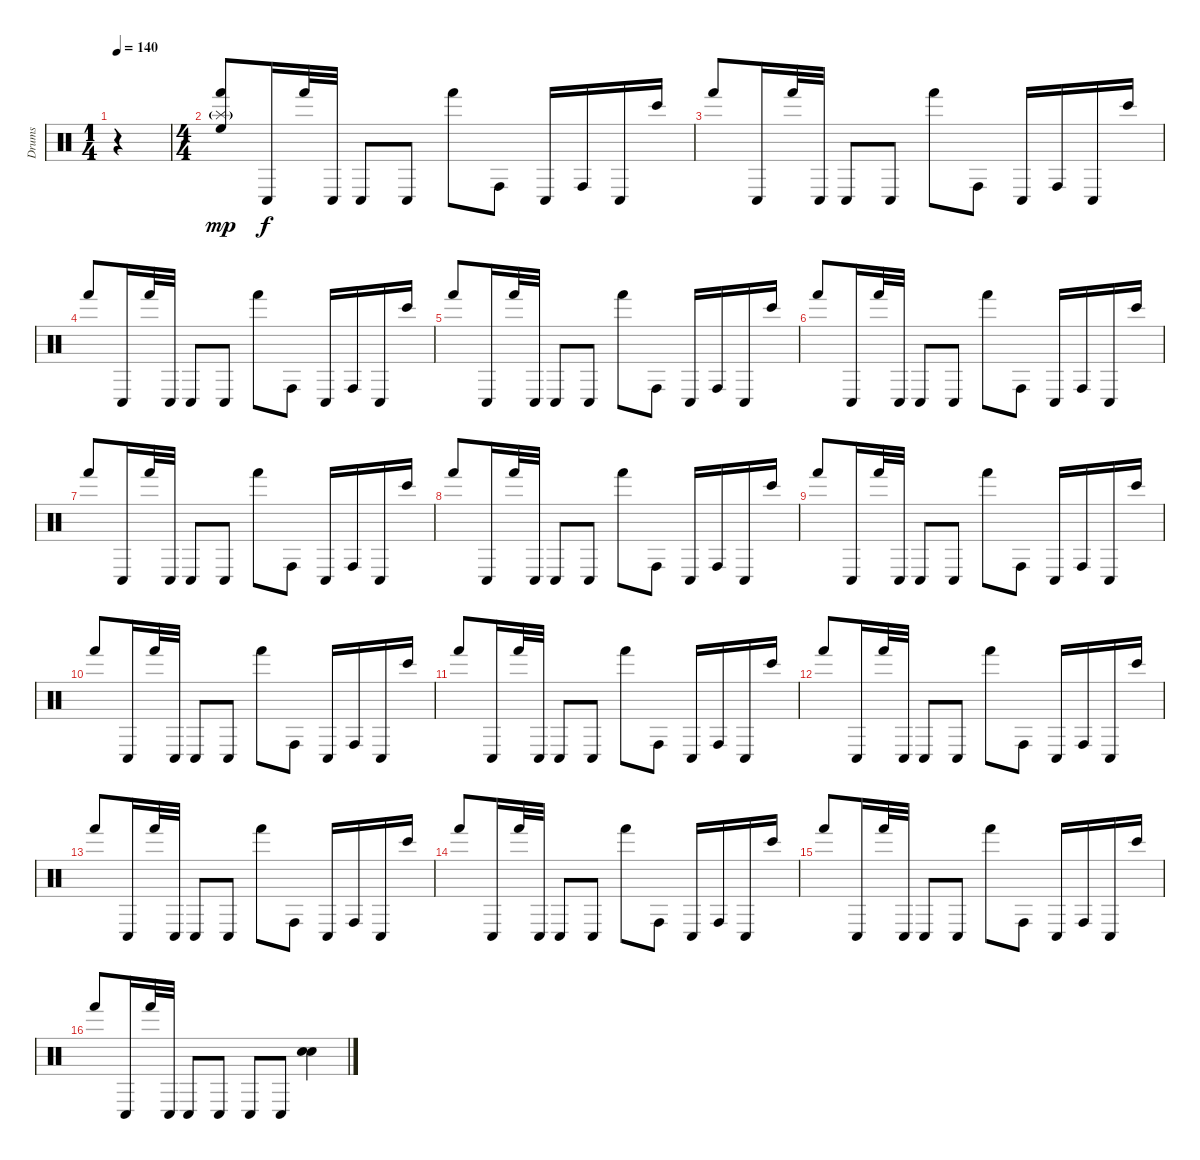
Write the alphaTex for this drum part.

\track ("Drums" "Drums") {instrument percussion}
\staff {score}
\articulation defaults
\ts (1 4)
\tempo 140
\tempo 115
\tempo 140
\clef neutral
\ks c
r.4{dy mp} |
\ts (4 4)
("Splash (hit)"{g} "High Floor Tom (hit)" "Hand (hit)").8 "Conga low (hit)".16{dy f} "Hand (hit)".32 "Conga low (hit)".32 "Conga low (hit)".8 "Conga low (hit)".8 "Hand (hit)".8 "Conga high (hit)".8 "Conga low (hit)".16 "Conga high (hit)".16 "Conga low (hit)".16 "Bongo High (hit)".16 |
"Hand (hit)".8 "Conga low (hit)".16 "Hand (hit)".32 "Conga low (hit)".32 "Conga low (hit)".8 "Conga low (hit)".8 "Hand (hit)".8 "Conga high (hit)".8 "Conga low (hit)".16 "Conga high (hit)".16 "Conga low (hit)".16 "Bongo High (hit)".16 |
"Hand (hit)".8 "Conga low (hit)".16 "Hand (hit)".32 "Conga low (hit)".32 "Conga low (hit)".8 "Conga low (hit)".8 "Hand (hit)".8 "Conga high (hit)".8 "Conga low (hit)".16 "Conga high (hit)".16 "Conga low (hit)".16 "Bongo High (hit)".16 |
"Hand (hit)".8 "Conga low (hit)".16 "Hand (hit)".32 "Conga low (hit)".32 "Conga low (hit)".8 "Conga low (hit)".8 "Hand (hit)".8 "Conga high (hit)".8 "Conga low (hit)".16 "Conga high (hit)".16 "Conga low (hit)".16 "Bongo High (hit)".16 |
"Hand (hit)".8 "Conga low (hit)".16 "Hand (hit)".32 "Conga low (hit)".32 "Conga low (hit)".8 "Conga low (hit)".8 "Hand (hit)".8 "Conga high (hit)".8 "Conga low (hit)".16 "Conga high (hit)".16 "Conga low (hit)".16 "Bongo High (hit)".16 |
"Hand (hit)".8 "Conga low (hit)".16 "Hand (hit)".32 "Conga low (hit)".32 "Conga low (hit)".8 "Conga low (hit)".8 "Hand (hit)".8 "Conga high (hit)".8 "Conga low (hit)".16 "Conga high (hit)".16 "Conga low (hit)".16 "Bongo High (hit)".16 |
"Hand (hit)".8 "Conga low (hit)".16 "Hand (hit)".32 "Conga low (hit)".32 "Conga low (hit)".8 "Conga low (hit)".8 "Hand (hit)".8 "Conga high (hit)".8 "Conga low (hit)".16 "Conga high (hit)".16 "Conga low (hit)".16 "Bongo High (hit)".16 |
"Hand (hit)".8 "Conga low (hit)".16 "Hand (hit)".32 "Conga low (hit)".32 "Conga low (hit)".8 "Conga low (hit)".8 "Hand (hit)".8 "Conga high (hit)".8 "Conga low (hit)".16 "Conga high (hit)".16 "Conga low (hit)".16 "Bongo High (hit)".16 |
"Hand (hit)".8 "Conga low (hit)".16 "Hand (hit)".32 "Conga low (hit)".32 "Conga low (hit)".8 "Conga low (hit)".8 "Hand (hit)".8 "Conga high (hit)".8 "Conga low (hit)".16 "Conga high (hit)".16 "Conga low (hit)".16 "Bongo High (hit)".16 |
"Hand (hit)".8 "Conga low (hit)".16 "Hand (hit)".32 "Conga low (hit)".32 "Conga low (hit)".8 "Conga low (hit)".8 "Hand (hit)".8 "Conga high (hit)".8 "Conga low (hit)".16 "Conga high (hit)".16 "Conga low (hit)".16 "Bongo High (hit)".16 |
"Hand (hit)".8 "Conga low (hit)".16 "Hand (hit)".32 "Conga low (hit)".32 "Conga low (hit)".8 "Conga low (hit)".8 "Hand (hit)".8 "Conga high (hit)".8 "Conga low (hit)".16 "Conga high (hit)".16 "Conga low (hit)".16 "Bongo High (hit)".16 |
"Hand (hit)".8 "Conga low (hit)".16 "Hand (hit)".32 "Conga low (hit)".32 "Conga low (hit)".8 "Conga low (hit)".8 "Hand (hit)".8 "Conga high (hit)".8 "Conga low (hit)".16 "Conga high (hit)".16 "Conga low (hit)".16 "Bongo High (hit)".16 |
"Hand (hit)".8 "Conga low (hit)".16 "Hand (hit)".32 "Conga low (hit)".32 "Conga low (hit)".8 "Conga low (hit)".8 "Hand (hit)".8 "Conga high (hit)".8 "Conga low (hit)".16 "Conga high (hit)".16 "Conga low (hit)".16 "Bongo High (hit)".16 |
"Hand (hit)".8 "Conga low (hit)".16 "Hand (hit)".32 "Conga low (hit)".32 "Conga low (hit)".8 "Conga low (hit)".8 "Hand (hit)".8 "Conga high (hit)".8 "Conga low (hit)".16 "Conga high (hit)".16 "Conga low (hit)".16 "Bongo High (hit)".16 |
"Hand (hit)".8 "Conga low (hit)".16 "Hand (hit)".32 "Conga low (hit)".32 "Conga low (hit)".8 "Conga low (hit)".8 "Conga low (hit)".8 "Conga low (hit)".8 ("Electric Snare (hit)" "Electric Snare (hit)").4{volume 16}
